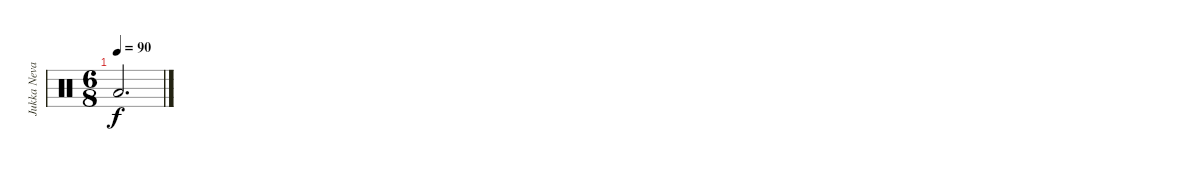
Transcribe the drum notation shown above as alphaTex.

\track ("Jukka Nevalainen" "Jukka Neva") {instrument percussion}
\staff {score}
\articulation defaults
\ts (6 8)
\tempo 90
\clef neutral
\ks c "Low Floor Tom (hit)".2{d dy f}
